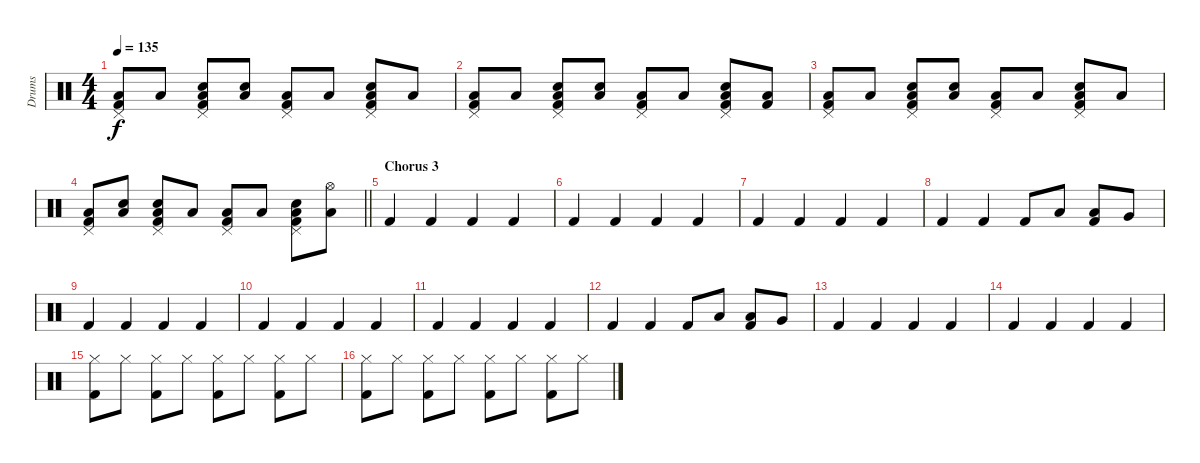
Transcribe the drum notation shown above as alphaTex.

\track ("Drums" "Drums") {instrument percussion}
\staff {score}
\articulation defaults
\ts (4 4)
\tempo 135
\clef neutral
\ks c
("Pedal Hi-Hat (hit)" "Low Floor Tom (hit)" "Kick (hit) 2").8{dy f} "Low Floor Tom (hit)".8 ("Pedal Hi-Hat (hit)" "Low Floor Tom (hit)" "Electric Snare (hit)" "Kick (hit) 2").8 ("Low Floor Tom (hit)" "Electric Snare (hit)").8 ("Pedal Hi-Hat (hit)" "Low Floor Tom (hit)" "Kick (hit) 2").8 "Low Floor Tom (hit)".8 ("Pedal Hi-Hat (hit)" "Low Floor Tom (hit)" "Electric Snare (hit)" "Kick (hit) 2").8 "Low Floor Tom (hit)".8 |
("Pedal Hi-Hat (hit)" "Low Floor Tom (hit)" "Kick (hit) 2").8 "Low Floor Tom (hit)".8 ("Pedal Hi-Hat (hit)" "Low Floor Tom (hit)" "Electric Snare (hit)" "Kick (hit) 2").8 ("Low Floor Tom (hit)" "Electric Snare (hit)").8 ("Pedal Hi-Hat (hit)" "Low Floor Tom (hit)" "Kick (hit) 2").8 "Low Floor Tom (hit)".8 ("Pedal Hi-Hat (hit)" "Low Floor Tom (hit)" "Electric Snare (hit)" "Kick (hit) 2").8 ("Low Floor Tom (hit)" "Kick (hit) 2").8 |
("Pedal Hi-Hat (hit)" "Low Floor Tom (hit)" "Kick (hit) 2").8 "Low Floor Tom (hit)".8 ("Pedal Hi-Hat (hit)" "Low Floor Tom (hit)" "Electric Snare (hit)" "Kick (hit) 2").8 ("Low Floor Tom (hit)" "Electric Snare (hit)").8 ("Pedal Hi-Hat (hit)" "Low Floor Tom (hit)" "Kick (hit) 2").8 "Low Floor Tom (hit)".8 ("Pedal Hi-Hat (hit)" "Low Floor Tom (hit)" "Electric Snare (hit)" "Kick (hit) 2").8 "Low Floor Tom (hit)".8 |
\barLineRight lightlight
("Pedal Hi-Hat (hit)" "Low Floor Tom (hit)" "Kick (hit) 2").8 ("Low Floor Tom (hit)" "Electric Snare (hit)").8 ("Pedal Hi-Hat (hit)" "Low Floor Tom (hit)" "Electric Snare (hit)" "Kick (hit) 2").8 "Low Floor Tom (hit)".8 ("Pedal Hi-Hat (hit)" "Low Floor Tom (hit)" "Kick (hit) 2").8 "Low Floor Tom (hit)".8 ("Pedal Hi-Hat (hit)" "Low Floor Tom (hit)" "Electric Snare (hit)" "Kick (hit) 2").8 ("Hi-Hat (open)" "Low Floor Tom (hit)").8 |
\section ("" "Chorus 3")
"Kick (hit) 2".4 "Kick (hit) 2".4 "Kick (hit) 2".4 "Kick (hit) 2".4 |
"Kick (hit) 2".4 "Kick (hit) 2".4 "Kick (hit) 2".4 "Kick (hit) 2".4 |
"Kick (hit) 2".4 "Kick (hit) 2".4 "Kick (hit) 2".4 "Kick (hit) 2".4 |
"Kick (hit) 2".4 "Kick (hit) 2".4 "Kick (hit) 2".8 "Low Tom (hit)".8 ("Low Tom (hit)" "Kick (hit) 2").8 "Very Low Tom (hit)".8 |
"Kick (hit) 2".4 "Kick (hit) 2".4 "Kick (hit) 2".4 "Kick (hit) 2".4 |
"Kick (hit) 2".4 "Kick (hit) 2".4 "Kick (hit) 2".4 "Kick (hit) 2".4 |
"Kick (hit) 2".4 "Kick (hit) 2".4 "Kick (hit) 2".4 "Kick (hit) 2".4 |
"Kick (hit) 2".4 "Kick (hit) 2".4 "Kick (hit) 2".8 "Low Tom (hit)".8 ("Low Tom (hit)" "Kick (hit) 2").8 "Very Low Tom (hit)".8 |
"Kick (hit) 2".4 "Kick (hit) 2".4 "Kick (hit) 2".4 "Kick (hit) 2".4 |
"Kick (hit) 2".4 "Kick (hit) 2".4 "Kick (hit) 2".4 "Kick (hit) 2".4 |
("Hi-Hat (closed)" "Kick (hit) 2").8 "Hi-Hat (closed)".8 ("Hi-Hat (closed)" "Kick (hit) 2").8 "Hi-Hat (closed)".8 ("Hi-Hat (closed)" "Kick (hit) 2").8 "Hi-Hat (closed)".8 ("Hi-Hat (closed)" "Kick (hit) 2").8 "Hi-Hat (closed)".8 |
("Hi-Hat (closed)" "Kick (hit) 2").8 "Hi-Hat (closed)".8 ("Hi-Hat (closed)" "Kick (hit) 2").8 "Hi-Hat (closed)".8 ("Hi-Hat (closed)" "Kick (hit) 2").8 "Hi-Hat (closed)".8 ("Hi-Hat (closed)" "Kick (hit) 2").8 "Hi-Hat (closed)".8
